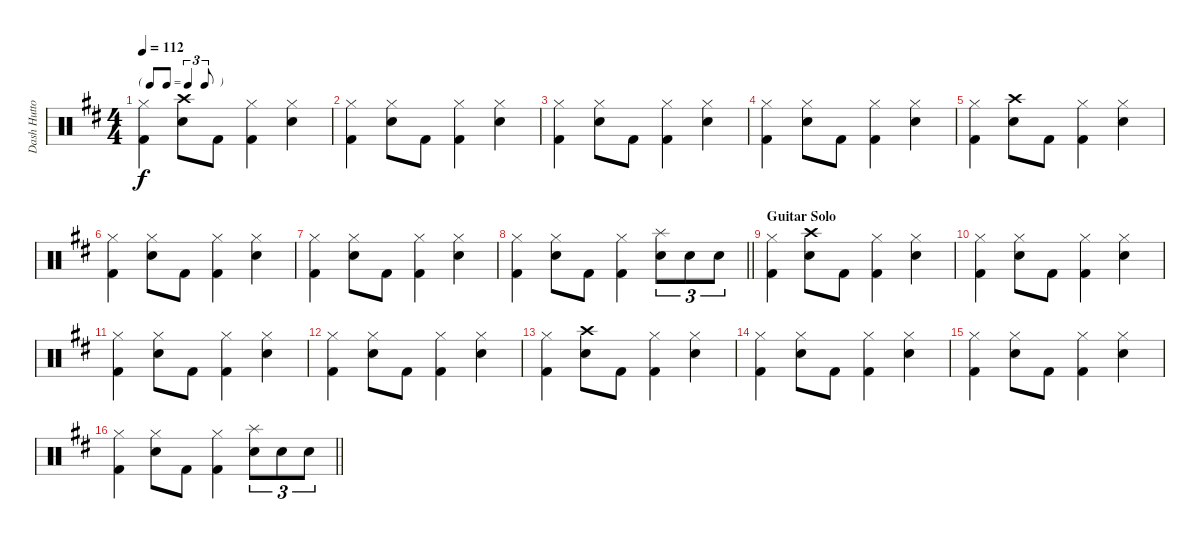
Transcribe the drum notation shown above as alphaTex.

\track ("Dash Hutton" "Dash Hutto") {instrument percussion}
\staff {score}
\articulation defaults
\ts (4 4)
\tf triplet8th
\tempo 112
\clef neutral
\ks d
("Hi-Hat (closed)" "Kick (hit) 2").4{dy f} ("Crash high (hit)" "Snare (hit) 2").8 "Kick (hit) 2".8 ("Hi-Hat (closed)" "Kick (hit) 2").4 ("Hi-Hat (closed)" "Snare (hit) 2").4 |
("Hi-Hat (closed)" "Kick (hit) 2").4 ("Hi-Hat (closed)" "Snare (hit) 2").8 "Kick (hit) 2".8 ("Hi-Hat (closed)" "Kick (hit) 2").4 ("Hi-Hat (closed)" "Snare (hit) 2").4 |
("Hi-Hat (closed)" "Kick (hit) 2").4 ("Hi-Hat (closed)" "Snare (hit) 2").8 "Kick (hit) 2".8 ("Hi-Hat (closed)" "Kick (hit) 2").4 ("Hi-Hat (closed)" "Snare (hit) 2").4 |
("Hi-Hat (closed)" "Kick (hit) 2").4 ("Hi-Hat (closed)" "Snare (hit) 2").8 "Kick (hit) 2".8 ("Hi-Hat (closed)" "Kick (hit) 2").4 ("Hi-Hat (closed)" "Snare (hit) 2").4 |
("Hi-Hat (closed)" "Kick (hit) 2").4 ("Crash high (hit)" "Snare (hit) 2").8 "Kick (hit) 2".8 ("Hi-Hat (closed)" "Kick (hit) 2").4 ("Hi-Hat (closed)" "Snare (hit) 2").4 |
("Hi-Hat (closed)" "Kick (hit) 2").4 ("Hi-Hat (closed)" "Snare (hit) 2").8 "Kick (hit) 2".8 ("Hi-Hat (closed)" "Kick (hit) 2").4 ("Hi-Hat (closed)" "Snare (hit) 2").4 |
("Hi-Hat (closed)" "Kick (hit) 2").4 ("Hi-Hat (closed)" "Snare (hit) 2").8 "Kick (hit) 2".8 ("Hi-Hat (closed)" "Kick (hit) 2").4 ("Hi-Hat (closed)" "Snare (hit) 2").4 |
\barLineRight lightlight
("Hi-Hat (closed)" "Kick (hit) 2").4 ("Hi-Hat (closed)" "Snare (hit) 2").8 "Kick (hit) 2".8 ("Hi-Hat (closed)" "Kick (hit) 2").4 ("Splash (hit)" "Snare (hit) 2").8{tu (3 2)} "Snare (hit) 2".8{tu (3 2)} "Snare (hit) 2".8{tu (3 2)} |
\section ("" "Guitar Solo")
("Hi-Hat (closed)" "Kick (hit) 2").4 ("Crash high (hit)" "Snare (hit) 2").8 "Kick (hit) 2".8 ("Hi-Hat (closed)" "Kick (hit) 2").4 ("Hi-Hat (closed)" "Snare (hit) 2").4 |
("Hi-Hat (closed)" "Kick (hit) 2").4 ("Hi-Hat (closed)" "Snare (hit) 2").8 "Kick (hit) 2".8 ("Hi-Hat (closed)" "Kick (hit) 2").4 ("Hi-Hat (closed)" "Snare (hit) 2").4 |
("Hi-Hat (closed)" "Kick (hit) 2").4 ("Hi-Hat (closed)" "Snare (hit) 2").8 "Kick (hit) 2".8 ("Hi-Hat (closed)" "Kick (hit) 2").4 ("Hi-Hat (closed)" "Snare (hit) 2").4 |
("Hi-Hat (closed)" "Kick (hit) 2").4 ("Hi-Hat (closed)" "Snare (hit) 2").8 "Kick (hit) 2".8 ("Hi-Hat (closed)" "Kick (hit) 2").4 ("Hi-Hat (closed)" "Snare (hit) 2").4 |
("Hi-Hat (closed)" "Kick (hit) 2").4 ("Crash high (hit)" "Snare (hit) 2").8 "Kick (hit) 2".8 ("Hi-Hat (closed)" "Kick (hit) 2").4 ("Hi-Hat (closed)" "Snare (hit) 2").4 |
("Hi-Hat (closed)" "Kick (hit) 2").4 ("Hi-Hat (closed)" "Snare (hit) 2").8 "Kick (hit) 2".8 ("Hi-Hat (closed)" "Kick (hit) 2").4 ("Hi-Hat (closed)" "Snare (hit) 2").4 |
("Hi-Hat (closed)" "Kick (hit) 2").4 ("Hi-Hat (closed)" "Snare (hit) 2").8 "Kick (hit) 2".8 ("Hi-Hat (closed)" "Kick (hit) 2").4 ("Hi-Hat (closed)" "Snare (hit) 2").4 |
\barLineRight lightlight
("Hi-Hat (closed)" "Kick (hit) 2").4 ("Hi-Hat (closed)" "Snare (hit) 2").8 "Kick (hit) 2".8 ("Hi-Hat (closed)" "Kick (hit) 2").4 ("Splash (hit)" "Snare (hit) 2").8{tu (3 2)} "Snare (hit) 2".8{tu (3 2)} "Snare (hit) 2".8{tu (3 2)}
